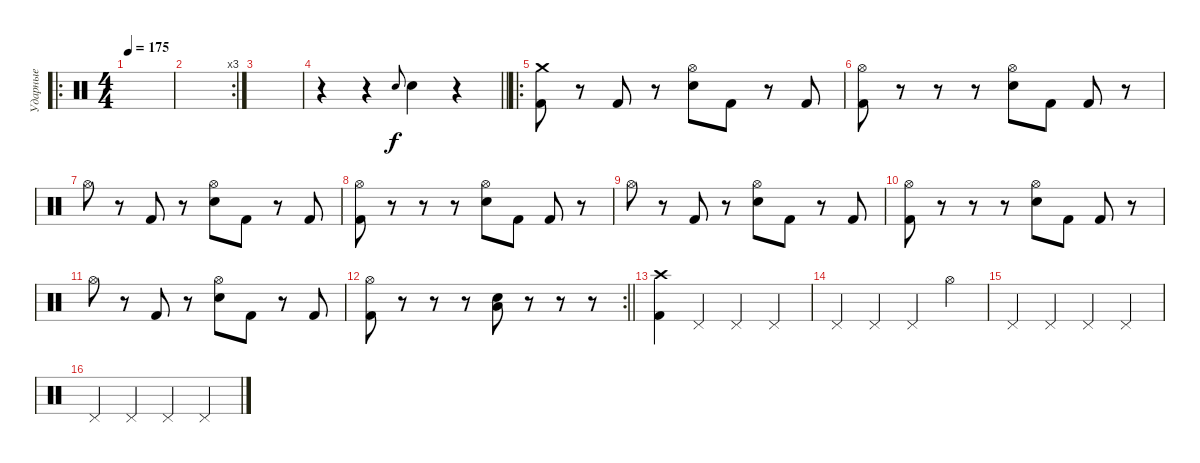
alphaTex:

\track ("Ударные" "Ударные") {instrument percussion}
\staff {score}
\articulation defaults
\ro
\ts (4 4)
\section ("" " ")
\tempo 175
\clef neutral
\ks c
|
\rc 3
|
|
\barLineRight lightlight
r.4 r.4 "Electric Snare (hit)".8{gr onbeat} "Electric Snare (hit)".4 r.4 |
\ro
\section ("" " ")
("Crash medium (hit)" "Kick (hit) 2").8 r.8 "Kick (hit) 2".8 r.8 ("Hi-Hat (open)" "Electric Snare (hit)").8 "Kick (hit) 2".8 r.8 "Kick (hit) 2".8 |
("Hi-Hat (open)" "Kick (hit) 2").8 r.8 r.8 r.8 ("Hi-Hat (open)" "Electric Snare (hit)").8 "Kick (hit) 2".8 "Kick (hit) 2".8 r.8 |
"Hi-Hat (open)".8 r.8 "Kick (hit) 2".8 r.8 ("Hi-Hat (open)" "Electric Snare (hit)").8 "Kick (hit) 2".8 r.8 "Kick (hit) 2".8 |
("Hi-Hat (open)" "Kick (hit) 2").8 r.8 r.8 r.8 ("Hi-Hat (open)" "Electric Snare (hit)").8 "Kick (hit) 2".8 "Kick (hit) 2".8 r.8 |
"Hi-Hat (open)".8 r.8 "Kick (hit) 2".8 r.8 ("Hi-Hat (open)" "Electric Snare (hit)").8 "Kick (hit) 2".8 r.8 "Kick (hit) 2".8 |
("Hi-Hat (open)" "Kick (hit) 2").8 r.8 r.8 r.8 ("Hi-Hat (open)" "Electric Snare (hit)").8 "Kick (hit) 2".8 "Kick (hit) 2".8 r.8 |
"Hi-Hat (open)".8 r.8 "Kick (hit) 2".8 r.8 ("Hi-Hat (open)" "Electric Snare (hit)").8 "Kick (hit) 2".8 r.8 "Kick (hit) 2".8 |
\rc 2
\barLineRight lightlight
("Hi-Hat (open)" "Kick (hit) 2").8 r.8 r.8 r.8 ("Low Floor Tom (hit)" "Electric Snare (hit)").8 r.8 r.8 r.8 |
\section ("" " ")
("Crash high (hit)" "Kick (hit) 2").4 "Pedal Hi-Hat (hit)".4 "Pedal Hi-Hat (hit)".4 "Pedal Hi-Hat (hit)".4 |
"Pedal Hi-Hat (hit)".4 "Pedal Hi-Hat (hit)".4 "Pedal Hi-Hat (hit)".4 "Hi-Hat (open)".4 |
"Pedal Hi-Hat (hit)".4 "Pedal Hi-Hat (hit)".4 "Pedal Hi-Hat (hit)".4 "Pedal Hi-Hat (hit)".4 |
"Pedal Hi-Hat (hit)".4 "Pedal Hi-Hat (hit)".4 "Pedal Hi-Hat (hit)".4 "Pedal Hi-Hat (hit)".4
